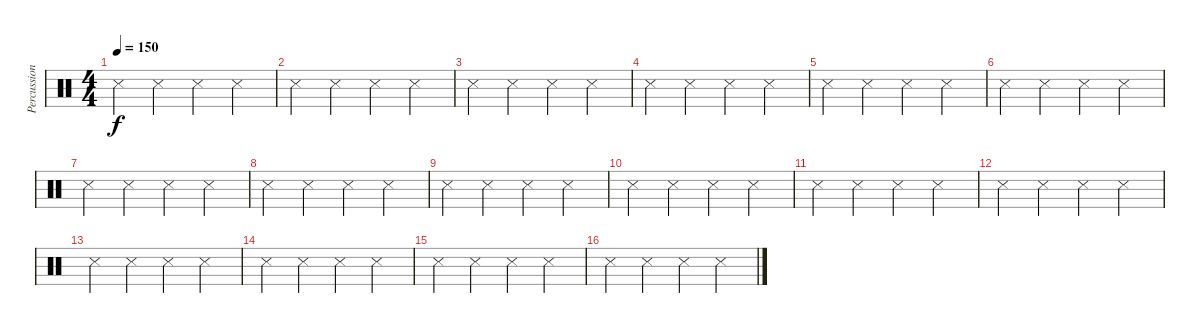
\track ("Percussion" "Percussion") {instrument percussion}
\staff {score}
\articulation defaults
\ts (4 4)
\tempo 150
\clef neutral
\ks c "Metronome (hit)".4{dy f} "Metronome (hit)".4 "Metronome (hit)".4 "Metronome (hit)".4
|
"Metronome (hit)".4 "Metronome (hit)".4 "Metronome (hit)".4 "Metronome (hit)".4 |
"Metronome (hit)".4 "Metronome (hit)".4 "Metronome (hit)".4 "Metronome (hit)".4 |
"Metronome (hit)".4 "Metronome (hit)".4 "Metronome (hit)".4 "Metronome (hit)".4 |
"Metronome (hit)".4 "Metronome (hit)".4 "Metronome (hit)".4 "Metronome (hit)".4 |
"Metronome (hit)".4 "Metronome (hit)".4 "Metronome (hit)".4 "Metronome (hit)".4 |
"Metronome (hit)".4 "Metronome (hit)".4 "Metronome (hit)".4 "Metronome (hit)".4 |
"Metronome (hit)".4 "Metronome (hit)".4 "Metronome (hit)".4 "Metronome (hit)".4 |
"Metronome (hit)".4 "Metronome (hit)".4 "Metronome (hit)".4 "Metronome (hit)".4 |
"Metronome (hit)".4 "Metronome (hit)".4 "Metronome (hit)".4 "Metronome (hit)".4 |
"Metronome (hit)".4 "Metronome (hit)".4 "Metronome (hit)".4 "Metronome (hit)".4 |
"Metronome (hit)".4 "Metronome (hit)".4 "Metronome (hit)".4 "Metronome (hit)".4 |
"Metronome (hit)".4 "Metronome (hit)".4 "Metronome (hit)".4 "Metronome (hit)".4 |
"Metronome (hit)".4 "Metronome (hit)".4 "Metronome (hit)".4 "Metronome (hit)".4 |
"Metronome (hit)".4 "Metronome (hit)".4 "Metronome (hit)".4 "Metronome (hit)".4 |
"Metronome (hit)".4 "Metronome (hit)".4 "Metronome (hit)".4 "Metronome (hit)".4
